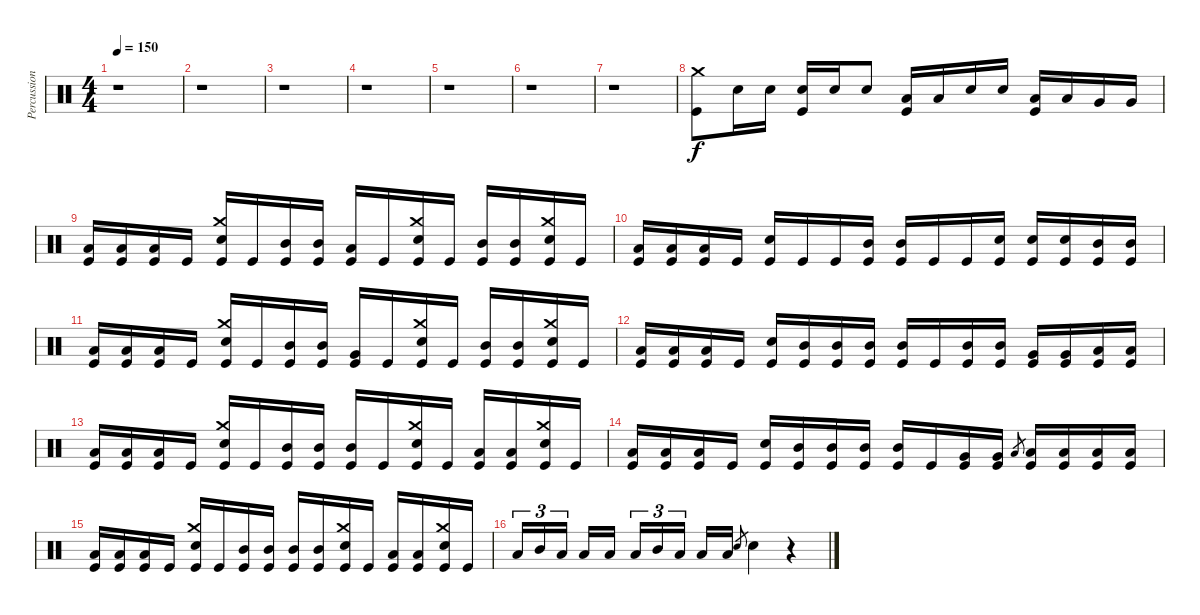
\track ("Percussions" "Percussion") {instrument percussion}
\staff {score}
\articulation defaults
\ts (4 4)
\tempo 150
\clef neutral
\ks c
r.1{dy f} |
r.1 |
r.1 |
r.1 |
r.1 |
r.1 |
r.1 |
("Kick (hit)" "Crash medium (hit)").8 "Electric Snare (hit)".16 "Electric Snare (hit)".16 ("Kick (hit)" "Electric Snare (hit)").16 "Electric Snare (hit)".16 "Electric Snare (hit)".8 ("Kick (hit)" "Low Tom (hit)").16 "Low Tom (hit)".16 "Electric Snare (hit)".16 "Electric Snare (hit)".16 ("Kick (hit)" "Low Tom (hit)").16 "Low Tom (hit)".16 "Very Low Tom (hit)".16 "Very Low Tom (hit)".16 |
("Kick (hit)" "Low Floor Tom (hit)").16 ("Kick (hit)" "Low Floor Tom (hit)").16 ("Kick (hit)" "Low Floor Tom (hit)").16 "Kick (hit)".16 ("Kick (hit)" "Electric Snare (hit)" "Crash medium (hit)").16 "Kick (hit)".16 ("Kick (hit)" "Mid Tom (hit)").16 ("Kick (hit)" "Mid Tom (hit)").16 ("Kick (hit)" "Low Tom (hit)").16 "Kick (hit)".16 ("Kick (hit)" "Electric Snare (hit)" "Crash medium (hit)").16 "Kick (hit)".16 ("Kick (hit)" "Mid Tom (hit)").16 ("Kick (hit)" "Mid Tom (hit)").16 ("Kick (hit)" "Electric Snare (hit)" "Crash medium (hit)").16 "Kick (hit)".16 |
("Kick (hit)" "Low Floor Tom (hit)").16 ("Kick (hit)" "Low Floor Tom (hit)").16 ("Kick (hit)" "Low Floor Tom (hit)").16 "Kick (hit)".16 ("Kick (hit)" "Electric Snare (hit)").16 "Kick (hit)".16 "Kick (hit)".16 ("Kick (hit)" "Mid Tom (hit)").16 ("Kick (hit)" "Mid Tom (hit)").16 "Kick (hit)".16 "Kick (hit)".16 ("Kick (hit)" "Electric Snare (hit)").16 ("Kick (hit)" "Electric Snare (hit)").16 ("Kick (hit)" "Electric Snare (hit)").16 ("Kick (hit)" "Mid Tom (hit)").16 ("Kick (hit)" "Mid Tom (hit)").16 |
("Kick (hit)" "Low Floor Tom (hit)").16 ("Kick (hit)" "Low Floor Tom (hit)").16 ("Kick (hit)" "Low Floor Tom (hit)").16 "Kick (hit)".16 ("Kick (hit)" "Electric Snare (hit)" "Crash medium (hit)").16 "Kick (hit)".16 ("Kick (hit)" "Mid Tom (hit)").16 ("Kick (hit)" "Mid Tom (hit)").16 ("Kick (hit)" "Very Low Tom (hit)").16 "Kick (hit)".16 ("Kick (hit)" "Electric Snare (hit)" "Crash medium (hit)").16 "Kick (hit)".16 ("Kick (hit)" "Mid Tom (hit)").16 ("Kick (hit)" "Mid Tom (hit)").16 ("Kick (hit)" "Electric Snare (hit)" "Crash medium (hit)").16 "Kick (hit)".16 |
("Kick (hit)" "Low Floor Tom (hit)").16 ("Kick (hit)" "Low Floor Tom (hit)").16 ("Kick (hit)" "Low Floor Tom (hit)").16 "Kick (hit)".16 ("Kick (hit)" "Electric Snare (hit)").16 ("Kick (hit)" "Mid Tom (hit)").16 ("Kick (hit)" "Mid Tom (hit)").16 ("Kick (hit)" "Mid Tom (hit)").16 ("Kick (hit)" "Mid Tom (hit)").16 "Kick (hit)".16 ("Kick (hit)" "Mid Tom (hit)").16 ("Kick (hit)" "Mid Tom (hit)").16 ("Kick (hit)" "Very Low Tom (hit)").16 ("Kick (hit)" "Very Low Tom (hit)").16 ("Kick (hit)" "Low Floor Tom (hit)").16 ("Kick (hit)" "Low Floor Tom (hit)").16 |
("Kick (hit)" "Low Floor Tom (hit)").16 ("Kick (hit)" "Low Floor Tom (hit)").16 ("Kick (hit)" "Low Floor Tom (hit)").16 "Kick (hit)".16 ("Kick (hit)" "Electric Snare (hit)" "Crash medium (hit)").16 "Kick (hit)".16 ("Kick (hit)" "Mid Tom (hit)").16 ("Kick (hit)" "Mid Tom (hit)").16 ("Kick (hit)" "Mid Tom (hit)").16 "Kick (hit)".16 ("Kick (hit)" "Electric Snare (hit)" "Crash medium (hit)").16 "Kick (hit)".16 ("Kick (hit)" "Low Tom (hit)").16 ("Kick (hit)" "Low Tom (hit)").16 ("Kick (hit)" "Electric Snare (hit)" "Crash medium (hit)").16 "Kick (hit)".16 |
("Kick (hit)" "Low Floor Tom (hit)").16 ("Kick (hit)" "Low Floor Tom (hit)").16 ("Kick (hit)" "Low Floor Tom (hit)").16 "Kick (hit)".16 ("Kick (hit)" "Electric Snare (hit)").16 ("Kick (hit)" "Mid Tom (hit)").16 ("Kick (hit)" "Mid Tom (hit)").16 ("Kick (hit)" "Mid Tom (hit)").16 ("Kick (hit)" "Mid Tom (hit)").16 "Kick (hit)".16 ("Kick (hit)" "Very Low Tom (hit)").16 ("Kick (hit)" "Very Low Tom (hit)").16 "Low Floor Tom (hit)".8{gr} ("Kick (hit)" "Low Floor Tom (hit)").16 ("Kick (hit)" "Low Floor Tom (hit)").16 ("Kick (hit)" "Low Floor Tom (hit)").16 ("Kick (hit)" "Low Floor Tom (hit)").16 |
("Kick (hit)" "Low Floor Tom (hit)").16 ("Kick (hit)" "Low Floor Tom (hit)").16 ("Kick (hit)" "Low Floor Tom (hit)").16 "Kick (hit)".16 ("Kick (hit)" "Electric Snare (hit)" "Crash medium (hit)").16 "Kick (hit)".16 ("Kick (hit)" "Mid Tom (hit)").16 ("Kick (hit)" "Mid Tom (hit)").16 ("Kick (hit)" "Mid Tom (hit)").16 ("Kick (hit)" "Mid Tom (hit)").16 ("Kick (hit)" "Electric Snare (hit)" "Crash medium (hit)").16 "Kick (hit)".16 ("Kick (hit)" "Low Tom (hit)").16 ("Kick (hit)" "Low Tom (hit)").16 ("Kick (hit)" "Electric Snare (hit)" "Crash medium (hit)").16 "Kick (hit)".16 |
"Low Tom (hit)".16{tu (3 2)} "Mid Tom (hit)".16{tu (3 2)} "Low Tom (hit)".16{tu (3 2)} "Low Tom (hit)".16 "Low Floor Tom (hit)".16 "Low Tom (hit)".16{tu (3 2)} "Mid Tom (hit)".16{tu (3 2)} "Low Tom (hit)".16{tu (3 2)} "Low Tom (hit)".16 "Low Floor Tom (hit)".16 "Electric Snare (hit)".8{gr} "Electric Snare (hit)".4 r.4
